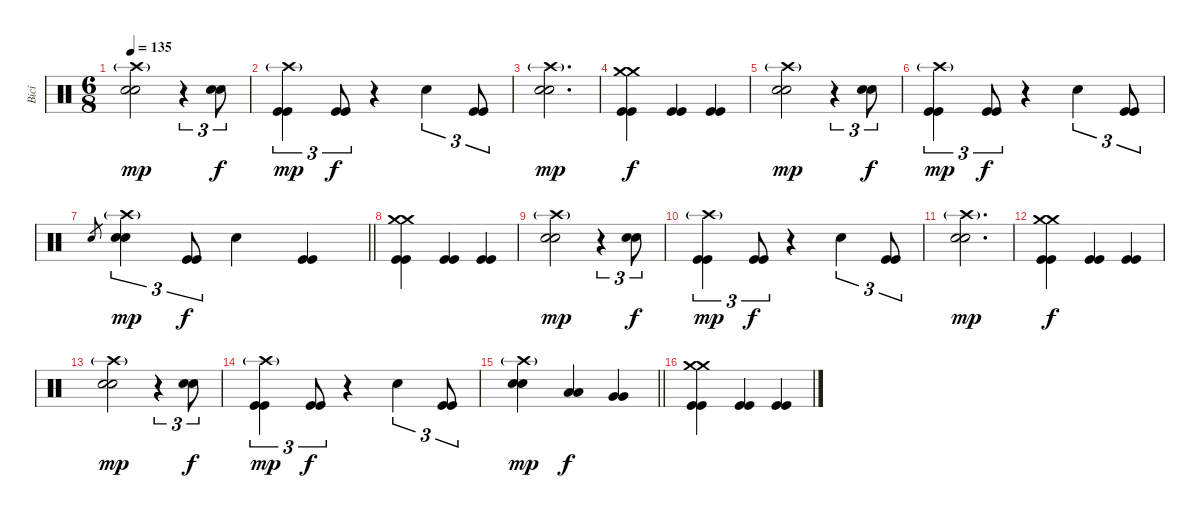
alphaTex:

\track ("Bicí" "Bicí") {instrument percussion}
\staff {score}
\articulation defaults
\ts (6 8)
\tempo 135
\clef neutral
\ks c
("Crash high (hit)"{g} "Electric Snare (hit)" "Electric Snare (hit)").2{dy mp} r.4{tu (3 2)} ("Electric Snare (hit)" "Electric Snare (hit)").8{tu (3 2) dy f} |
("Crash high (hit)"{g} "Kick (hit)" "Kick (hit)").4{tu (3 2) dy mp} ("Kick (hit)" "Kick (hit)").8{tu (3 2) dy f} r.4 "Snare (hit)".4{tu (3 2)} ("Kick (hit)" "Kick (hit)").8{tu (3 2)} |
("Crash high (hit)"{g} "Electric Snare (hit)" "Electric Snare (hit)").2{d dy mp} |
("Crash medium (hit)" "Crash medium (hit)" "Kick (hit)" "Kick (hit)").4{dy f} ("Kick (hit)" "Kick (hit)").4 ("Kick (hit)" "Kick (hit)").4 |
("Crash high (hit)"{g} "Electric Snare (hit)" "Electric Snare (hit)").2{dy mp} r.4{tu (3 2)} ("Electric Snare (hit)" "Electric Snare (hit)").8{tu (3 2) dy f} |
("Crash high (hit)"{g} "Kick (hit)" "Kick (hit)").4{tu (3 2) dy mp} ("Kick (hit)" "Kick (hit)").8{tu (3 2) dy f} r.4 "Snare (hit)".4{tu (3 2)} ("Kick (hit)" "Kick (hit)").8{tu (3 2)} |
\barLineRight lightlight "Electric Snare (hit)".8{gr}
("Crash high (hit)"{g} "Electric Snare (hit)" "Electric Snare (hit)").4{tu (3 2) dy mp} ("Kick (hit)" "Kick (hit)").8{tu (3 2) dy f} "Snare (hit)".4 ("Kick (hit)" "Kick (hit)").4 |
\section ("" "")
("Crash medium (hit)" "Crash medium (hit)" "Kick (hit)" "Kick (hit)").4 ("Kick (hit)" "Kick (hit)").4 ("Kick (hit)" "Kick (hit)").4 |
("Crash high (hit)"{g} "Electric Snare (hit)" "Electric Snare (hit)").2{dy mp} r.4{tu (3 2)} ("Electric Snare (hit)" "Electric Snare (hit)").8{tu (3 2) dy f} |
("Crash high (hit)"{g} "Kick (hit)" "Kick (hit)").4{tu (3 2) dy mp} ("Kick (hit)" "Kick (hit)").8{tu (3 2) dy f} r.4 "Snare (hit)".4{tu (3 2)} ("Kick (hit)" "Kick (hit)").8{tu (3 2)} |
("Crash high (hit)"{g} "Electric Snare (hit)" "Electric Snare (hit)").2{d dy mp} |
("Crash medium (hit)" "Crash medium (hit)" "Kick (hit)" "Kick (hit)").4{dy f} ("Kick (hit)" "Kick (hit)").4 ("Kick (hit)" "Kick (hit)").4 |
("Crash high (hit)"{g} "Electric Snare (hit)" "Electric Snare (hit)").2{dy mp} r.4{tu (3 2)} ("Electric Snare (hit)" "Electric Snare (hit)").8{tu (3 2) dy f} |
("Crash high (hit)"{g} "Kick (hit)" "Kick (hit)").4{tu (3 2) dy mp} ("Kick (hit)" "Kick (hit)").8{tu (3 2) dy f} r.4 "Snare (hit)".4{tu (3 2)} ("Kick (hit)" "Kick (hit)").8{tu (3 2)} |
\barLineRight lightlight
("Crash high (hit)"{g} "Electric Snare (hit)" "Electric Snare (hit)").4{dy mp} ("Low Tom (hit)" "Low Tom (hit)").4{dy f} ("Very Low Tom (hit)" "Very Low Tom (hit)").4 |
("Crash medium (hit)" "Crash medium (hit)" "Kick (hit)" "Kick (hit)").4 ("Kick (hit)" "Kick (hit)").4 ("Kick (hit)" "Kick (hit)").4
